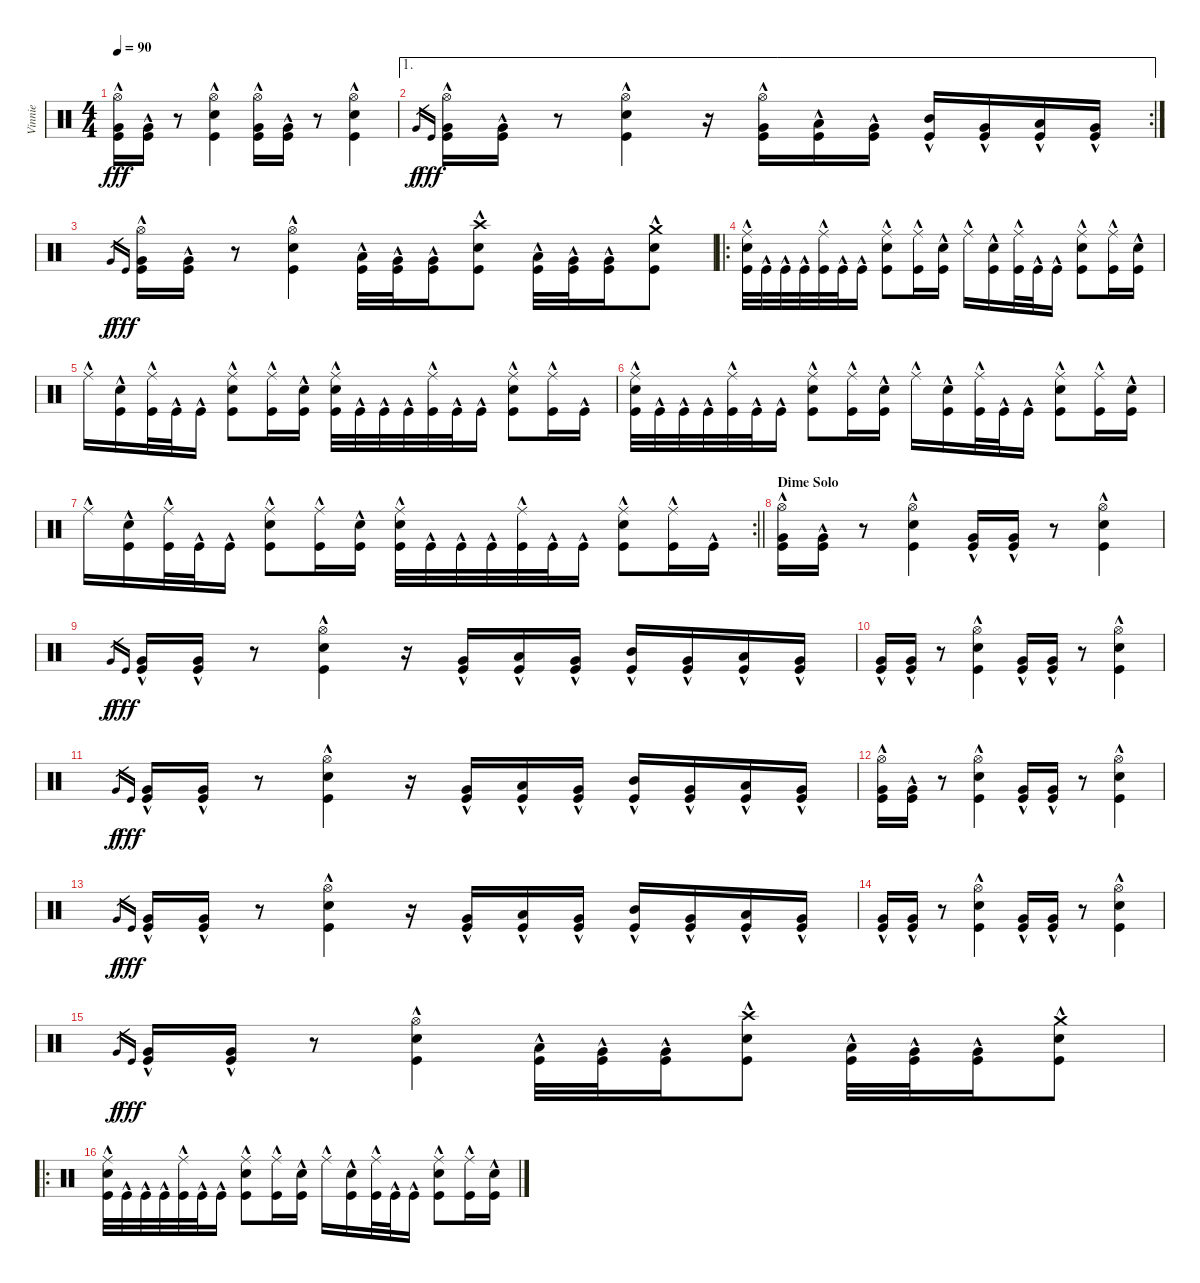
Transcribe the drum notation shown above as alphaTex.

\track ("Vinnie" "Vinnie") {instrument percussion}
\staff {score}
\articulation defaults
\ts (4 4)
\tempo 90
\clef neutral
\ks c
("Hi-Hat (open)" "Very Low Tom (hit)" "Kick (hit)"{hac}).16{dy fff} ("Very Low Tom (hit)" "Kick (hit)"{hac}).16 r.8 ("Hi-Hat (open)" "Electric Snare (hit)" "Kick (hit)"{hac}).4 ("Hi-Hat (open)" "Very Low Tom (hit)" "Kick (hit)"{hac}).16 ("Very Low Tom (hit)" "Kick (hit)"{hac}).16 r.8 ("Hi-Hat (open)" "Electric Snare (hit)" "Kick (hit)"{hac}).4 |
\ae 1
\rc 2 "Very Low Tom (hit)".16{gr dy f} "Kick (hit)".16{gr dy fff}
("Hi-Hat (open)" "Very Low Tom (hit)" "Kick (hit)"{hac}).16 ("Very Low Tom (hit)" "Kick (hit)"{hac}).16 r.8 ("Hi-Hat (open)" "Electric Snare (hit)" "Kick (hit)"{hac}).4 r.16 ("Hi-Hat (open)" "Very Low Tom (hit)" "Kick (hit)"{hac}).16 ("Low Tom (hit)" "Kick (hit)"{hac}).16 ("Very Low Tom (hit)" "Kick (hit)"{hac}).16 ("Mid Tom (hit)" "Kick (hit)"{hac}).16 ("Very Low Tom (hit)" "Kick (hit)"{hac}).16 ("Low Tom (hit)" "Kick (hit)"{hac}).16 ("Very Low Tom (hit)" "Kick (hit)"{hac}).16 |
"Very Low Tom (hit)".16{gr dy f} "Kick (hit)".16{gr dy fff} ("Hi-Hat (open)" "Very Low Tom (hit)" "Kick (hit)"{hac}).16 ("Very Low Tom (hit)" "Kick (hit)"{hac}).16 r.8 ("Hi-Hat (open)" "Electric Snare (hit)" "Kick (hit)"{hac}).4 ("Low Tom (hit)" "Kick (hit)"{hac}).32 ("Very Low Tom (hit)" "Kick (hit)"{hac}).32 ("Very Low Tom (hit)" "Kick (hit)"{hac}).16 ("Crash high (hit)" "Electric Snare (hit)" "Kick (hit)"{hac}).8 ("Low Tom (hit)" "Kick (hit)"{hac}).32 ("Very Low Tom (hit)" "Kick (hit)"{hac}).32 ("Very Low Tom (hit)" "Kick (hit)"{hac}).16 ("Crash medium (hit)" "Electric Snare (hit)" "Kick (hit)"{hac}).8 |
\ro
("Ride (middle)"{hac} "Electric Snare (hit)" "Kick (hit)"{hac}).32 "Kick (hit)"{hac}.32 "Kick (hit)"{hac}.32 "Kick (hit)"{hac}.32 ("Ride (middle)"{hac} "Kick (hit)"{hac}).32 "Kick (hit)"{hac}.32 "Kick (hit)"{hac}.16 ("Ride (middle)"{hac} "Electric Snare (hit)" "Kick (hit)"{hac}).8 ("Ride (middle)"{hac} "Kick (hit)"{hac}).16 ("Electric Snare (hit)" "Kick (hit)"{hac}).16 "Ride (middle)"{hac}.16 ("Electric Snare (hit)" "Kick (hit)"{hac}).16 ("Ride (middle)"{hac} "Kick (hit)"{hac}).32 "Kick (hit)"{hac}.32 "Kick (hit)"{hac}.16 ("Ride (middle)"{hac} "Electric Snare (hit)" "Kick (hit)"{hac}).8 ("Ride (middle)"{hac} "Kick (hit)"{hac}).16 ("Electric Snare (hit)" "Kick (hit)"{hac}).16 |
"Ride (middle)"{hac}.16 ("Electric Snare (hit)" "Kick (hit)"{hac}).16 ("Ride (middle)"{hac} "Kick (hit)"{hac}).32 "Kick (hit)"{hac}.32 "Kick (hit)"{hac}.16 ("Ride (middle)"{hac} "Electric Snare (hit)" "Kick (hit)"{hac}).8 ("Ride (middle)"{hac} "Kick (hit)"{hac}).16 ("Electric Snare (hit)" "Kick (hit)"{hac}).16 ("Ride (middle)"{hac} "Electric Snare (hit)" "Kick (hit)"{hac}).32 "Kick (hit)"{hac}.32 "Kick (hit)"{hac}.32 "Kick (hit)"{hac}.32 ("Ride (middle)"{hac} "Kick (hit)"{hac}).32 "Kick (hit)"{hac}.32 "Kick (hit)"{hac}.16 ("Ride (middle)"{hac} "Electric Snare (hit)" "Kick (hit)"{hac}).8 ("Ride (middle)"{hac} "Kick (hit)"{hac}).16 "Kick (hit)"{hac}.16 |
("Ride (middle)"{hac} "Electric Snare (hit)" "Kick (hit)"{hac}).32 "Kick (hit)"{hac}.32 "Kick (hit)"{hac}.32 "Kick (hit)"{hac}.32 ("Ride (middle)"{hac} "Kick (hit)"{hac}).32 "Kick (hit)"{hac}.32 "Kick (hit)"{hac}.16 ("Ride (middle)"{hac} "Electric Snare (hit)" "Kick (hit)"{hac}).8 ("Ride (middle)"{hac} "Kick (hit)"{hac}).16 ("Electric Snare (hit)" "Kick (hit)"{hac}).16 "Ride (middle)"{hac}.16 ("Electric Snare (hit)" "Kick (hit)"{hac}).16 ("Ride (middle)"{hac} "Kick (hit)"{hac}).32 "Kick (hit)"{hac}.32 "Kick (hit)"{hac}.16 ("Ride (middle)"{hac} "Electric Snare (hit)" "Kick (hit)"{hac}).8 ("Ride (middle)"{hac} "Kick (hit)"{hac}).16 ("Electric Snare (hit)" "Kick (hit)"{hac}).16 |
\rc 2
\barLineRight lightlight "Ride (middle)"{hac}.16
("Electric Snare (hit)" "Kick (hit)"{hac}).16 ("Ride (middle)"{hac} "Kick (hit)"{hac}).32 "Kick (hit)"{hac}.32 "Kick (hit)"{hac}.16 ("Ride (middle)"{hac} "Electric Snare (hit)" "Kick (hit)"{hac}).8 ("Ride (middle)"{hac} "Kick (hit)"{hac}).16 ("Electric Snare (hit)" "Kick (hit)"{hac}).16 ("Ride (middle)"{hac} "Electric Snare (hit)" "Kick (hit)"{hac}).32 "Kick (hit)"{hac}.32 "Kick (hit)"{hac}.32 "Kick (hit)"{hac}.32 ("Ride (middle)"{hac} "Kick (hit)"{hac}).32 "Kick (hit)"{hac}.32 "Kick (hit)"{hac}.16 ("Ride (middle)"{hac} "Electric Snare (hit)" "Kick (hit)"{hac}).8 ("Ride (middle)"{hac} "Kick (hit)"{hac}).16 "Kick (hit)"{hac}.16 |
\section ("" "Dime Solo")
("Hi-Hat (open)" "Very Low Tom (hit)" "Kick (hit)"{hac}).16 ("Very Low Tom (hit)" "Kick (hit)"{hac}).16 r.8 ("Hi-Hat (open)" "Electric Snare (hit)" "Kick (hit)"{hac}).4 ("Very Low Tom (hit)" "Kick (hit)"{hac}).16 ("Very Low Tom (hit)" "Kick (hit)"{hac}).16 r.8 ("Hi-Hat (open)" "Electric Snare (hit)" "Kick (hit)"{hac}).4 |
"Very Low Tom (hit)".16{gr dy f} "Kick (hit)".16{gr dy fff} ("Very Low Tom (hit)" "Kick (hit)"{hac}).16 ("Very Low Tom (hit)" "Kick (hit)"{hac}).16 r.8 ("Hi-Hat (open)" "Electric Snare (hit)" "Kick (hit)"{hac}).4 r.16 ("Very Low Tom (hit)" "Kick (hit)"{hac}).16 ("Low Tom (hit)" "Kick (hit)"{hac}).16 ("Very Low Tom (hit)" "Kick (hit)"{hac}).16 ("Mid Tom (hit)" "Kick (hit)"{hac}).16 ("Very Low Tom (hit)" "Kick (hit)"{hac}).16 ("Low Tom (hit)" "Kick (hit)"{hac}).16 ("Very Low Tom (hit)" "Kick (hit)"{hac}).16 |
("Very Low Tom (hit)" "Kick (hit)"{hac}).16 ("Very Low Tom (hit)" "Kick (hit)"{hac}).16 r.8 ("Hi-Hat (open)" "Electric Snare (hit)" "Kick (hit)"{hac}).4 ("Very Low Tom (hit)" "Kick (hit)"{hac}).16 ("Very Low Tom (hit)" "Kick (hit)"{hac}).16 r.8 ("Hi-Hat (open)" "Electric Snare (hit)" "Kick (hit)"{hac}).4 |
"Very Low Tom (hit)".16{gr dy f} "Kick (hit)".16{gr dy fff} ("Very Low Tom (hit)" "Kick (hit)"{hac}).16 ("Very Low Tom (hit)" "Kick (hit)"{hac}).16 r.8 ("Hi-Hat (open)" "Electric Snare (hit)" "Kick (hit)"{hac}).4 r.16 ("Very Low Tom (hit)" "Kick (hit)"{hac}).16 ("Low Tom (hit)" "Kick (hit)"{hac}).16 ("Very Low Tom (hit)" "Kick (hit)"{hac}).16 ("Mid Tom (hit)" "Kick (hit)"{hac}).16 ("Very Low Tom (hit)" "Kick (hit)"{hac}).16 ("Low Tom (hit)" "Kick (hit)"{hac}).16 ("Very Low Tom (hit)" "Kick (hit)"{hac}).16 |
("Hi-Hat (open)" "Very Low Tom (hit)" "Kick (hit)"{hac}).16 ("Very Low Tom (hit)" "Kick (hit)"{hac}).16 r.8 ("Hi-Hat (open)" "Electric Snare (hit)" "Kick (hit)"{hac}).4 ("Very Low Tom (hit)" "Kick (hit)"{hac}).16 ("Very Low Tom (hit)" "Kick (hit)"{hac}).16 r.8 ("Hi-Hat (open)" "Electric Snare (hit)" "Kick (hit)"{hac}).4 |
"Very Low Tom (hit)".16{gr dy f} "Kick (hit)".16{gr dy fff} ("Very Low Tom (hit)" "Kick (hit)"{hac}).16 ("Very Low Tom (hit)" "Kick (hit)"{hac}).16 r.8 ("Hi-Hat (open)" "Electric Snare (hit)" "Kick (hit)"{hac}).4 r.16 ("Very Low Tom (hit)" "Kick (hit)"{hac}).16 ("Low Tom (hit)" "Kick (hit)"{hac}).16 ("Very Low Tom (hit)" "Kick (hit)"{hac}).16 ("Mid Tom (hit)" "Kick (hit)"{hac}).16 ("Very Low Tom (hit)" "Kick (hit)"{hac}).16 ("Low Tom (hit)" "Kick (hit)"{hac}).16 ("Very Low Tom (hit)" "Kick (hit)"{hac}).16 |
("Very Low Tom (hit)" "Kick (hit)"{hac}).16 ("Very Low Tom (hit)" "Kick (hit)"{hac}).16 r.8 ("Hi-Hat (open)" "Electric Snare (hit)" "Kick (hit)"{hac}).4 ("Very Low Tom (hit)" "Kick (hit)"{hac}).16 ("Very Low Tom (hit)" "Kick (hit)"{hac}).16 r.8 ("Hi-Hat (open)" "Electric Snare (hit)" "Kick (hit)"{hac}).4 |
"Very Low Tom (hit)".16{gr dy f} "Kick (hit)".16{gr dy fff} ("Very Low Tom (hit)" "Kick (hit)"{hac}).16 ("Very Low Tom (hit)" "Kick (hit)"{hac}).16 r.8 ("Hi-Hat (open)" "Electric Snare (hit)" "Kick (hit)"{hac}).4 ("Low Tom (hit)" "Kick (hit)"{hac}).32 ("Very Low Tom (hit)" "Kick (hit)"{hac}).32 ("Very Low Tom (hit)" "Kick (hit)"{hac}).16 ("Crash high (hit)" "Electric Snare (hit)" "Kick (hit)"{hac}).8 ("Low Tom (hit)" "Kick (hit)"{hac}).32 ("Very Low Tom (hit)" "Kick (hit)"{hac}).32 ("Very Low Tom (hit)" "Kick (hit)"{hac}).16 ("Crash medium (hit)" "Electric Snare (hit)" "Kick (hit)"{hac}).8 |
\ro
("Ride (middle)"{hac} "Electric Snare (hit)" "Kick (hit)"{hac}).32 "Kick (hit)"{hac}.32 "Kick (hit)"{hac}.32 "Kick (hit)"{hac}.32 ("Ride (middle)"{hac} "Kick (hit)"{hac}).32 "Kick (hit)"{hac}.32 "Kick (hit)"{hac}.16 ("Ride (middle)"{hac} "Electric Snare (hit)" "Kick (hit)"{hac}).8 ("Ride (middle)"{hac} "Kick (hit)"{hac}).16 ("Electric Snare (hit)" "Kick (hit)"{hac}).16 "Ride (middle)"{hac}.16 ("Electric Snare (hit)" "Kick (hit)"{hac}).16 ("Ride (middle)"{hac} "Kick (hit)"{hac}).32 "Kick (hit)"{hac}.32 "Kick (hit)"{hac}.16 ("Ride (middle)"{hac} "Electric Snare (hit)" "Kick (hit)"{hac}).8 ("Ride (middle)"{hac} "Kick (hit)"{hac}).16 ("Electric Snare (hit)" "Kick (hit)"{hac}).16
